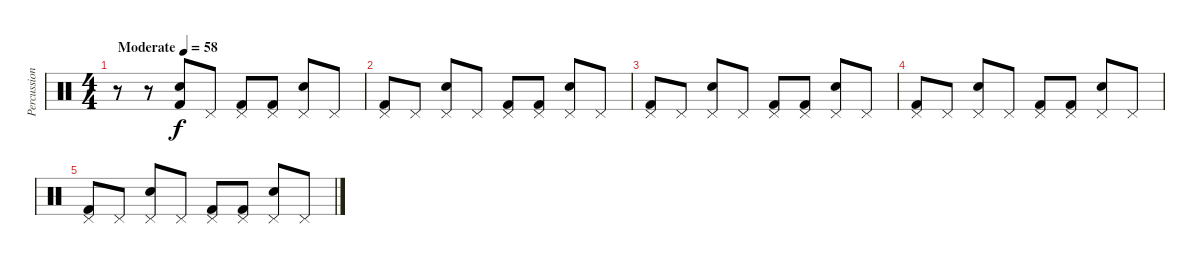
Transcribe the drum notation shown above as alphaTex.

\track ("Percussion" "Percussion") {instrument percussion}
\staff {score}
\articulation defaults
\ts (4 4)
\tempo (58 "Moderate")
\clef neutral
\ks c
r.8{dy f} r.8 ("Kick (hit) 2" "Snare (hit) 2").8 "Pedal Hi-Hat (hit)".8 ("Pedal Hi-Hat (hit)" "Kick (hit) 2").8 ("Pedal Hi-Hat (hit)" "Kick (hit) 2").8 ("Pedal Hi-Hat (hit)" "Snare (hit) 2").8 "Pedal Hi-Hat (hit)".8 |
("Pedal Hi-Hat (hit)" "Kick (hit) 2").8 "Pedal Hi-Hat (hit)".8 ("Pedal Hi-Hat (hit)" "Snare (hit) 2").8 "Pedal Hi-Hat (hit)".8 ("Pedal Hi-Hat (hit)" "Kick (hit) 2").8 ("Pedal Hi-Hat (hit)" "Kick (hit) 2").8 ("Pedal Hi-Hat (hit)" "Snare (hit) 2").8 "Pedal Hi-Hat (hit)".8 |
("Pedal Hi-Hat (hit)" "Kick (hit) 2").8 "Pedal Hi-Hat (hit)".8 ("Pedal Hi-Hat (hit)" "Snare (hit) 2").8 "Pedal Hi-Hat (hit)".8 ("Pedal Hi-Hat (hit)" "Kick (hit) 2").8 ("Pedal Hi-Hat (hit)" "Kick (hit) 2").8 ("Pedal Hi-Hat (hit)" "Snare (hit) 2").8 "Pedal Hi-Hat (hit)".8 |
("Pedal Hi-Hat (hit)" "Kick (hit) 2").8 "Pedal Hi-Hat (hit)".8 ("Pedal Hi-Hat (hit)" "Snare (hit) 2").8 "Pedal Hi-Hat (hit)".8 ("Pedal Hi-Hat (hit)" "Kick (hit) 2").8 ("Pedal Hi-Hat (hit)" "Kick (hit) 2").8 ("Pedal Hi-Hat (hit)" "Snare (hit) 2").8 "Pedal Hi-Hat (hit)".8 |
("Pedal Hi-Hat (hit)" "Kick (hit) 2").8 "Pedal Hi-Hat (hit)".8 ("Pedal Hi-Hat (hit)" "Snare (hit) 2").8 "Pedal Hi-Hat (hit)".8 ("Pedal Hi-Hat (hit)" "Kick (hit) 2").8 ("Pedal Hi-Hat (hit)" "Kick (hit) 2").8 ("Pedal Hi-Hat (hit)" "Snare (hit) 2").8 "Pedal Hi-Hat (hit)".8
